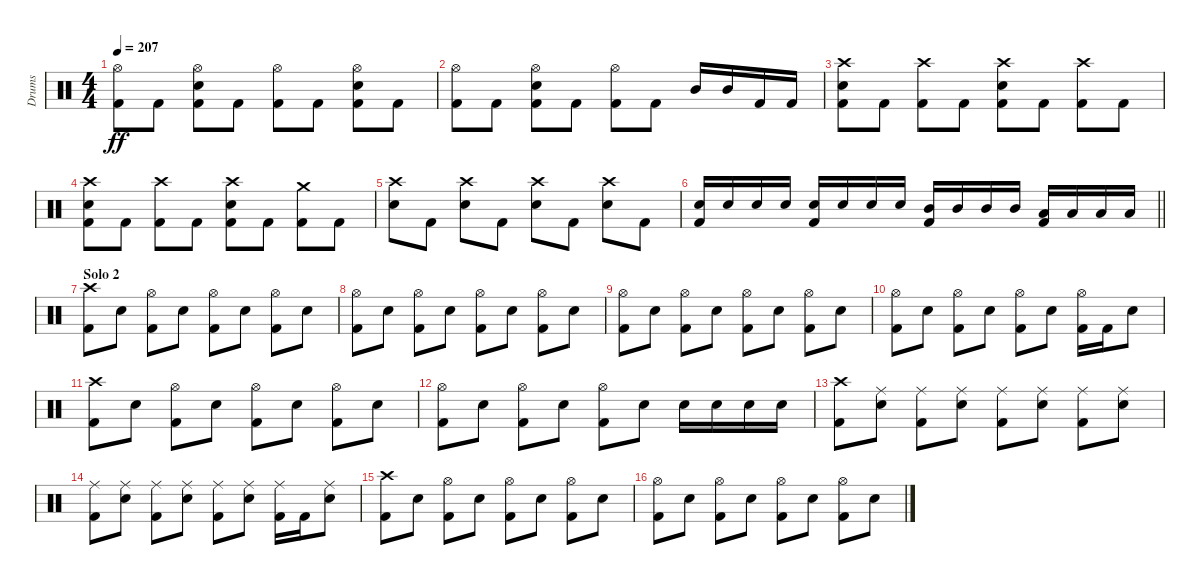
\track ("Drums" "Drums") {instrument percussion}
\staff {score}
\articulation defaults
\ts (4 4)
\tempo 207
\clef neutral
\ks c
("Hi-Hat (open)" "Kick (hit) 2").8{dy ff} "Kick (hit) 2".8 ("Hi-Hat (open)" "Snare (hit) 2" "Kick (hit) 2").8 "Kick (hit) 2".8 ("Hi-Hat (open)" "Kick (hit) 2").8 "Kick (hit) 2".8 ("Hi-Hat (open)" "Snare (hit) 2" "Kick (hit) 2").8 "Kick (hit) 2".8 |
("Hi-Hat (open)" "Kick (hit) 2").8 "Kick (hit) 2".8 ("Hi-Hat (open)" "Snare (hit) 2" "Kick (hit) 2").8 "Kick (hit) 2".8 ("Hi-Hat (open)" "Kick (hit) 2").8 "Kick (hit) 2".8 "Mid Tom (hit)".16 "Mid Tom (hit)".16 "Kick (hit) 2".16 "Kick (hit) 2".16 |
("Crash high (hit)" "Snare (hit) 2" "Kick (hit) 2").8 "Kick (hit) 2".8 ("Crash high (hit)" "Kick (hit) 2").8 "Kick (hit) 2".8 ("Crash high (hit)" "Snare (hit) 2" "Kick (hit) 2").8 "Kick (hit) 2".8 ("Crash high (hit)" "Kick (hit) 2").8 "Kick (hit) 2".8 |
("Crash high (hit)" "Snare (hit) 2" "Kick (hit) 2").8 "Kick (hit) 2".8 ("Crash high (hit)" "Kick (hit) 2").8 "Kick (hit) 2".8 ("Crash high (hit)" "Snare (hit) 2" "Kick (hit) 2").8 "Kick (hit) 2".8 ("Crash medium (hit)" "Kick (hit) 2").8 "Kick (hit) 2".8 |
("Crash high (hit)" "Snare (hit) 2").8 "Kick (hit) 2".8 ("Crash high (hit)" "Snare (hit) 2").8 "Kick (hit) 2".8 ("Crash high (hit)" "Snare (hit) 2").8 "Kick (hit) 2".8 ("Crash high (hit)" "Snare (hit) 2").8 "Kick (hit) 2".8 |
\barLineRight lightlight
("Snare (hit) 2" "Kick (hit) 2").16 "Snare (hit) 2".16 "Snare (hit) 2".16 "Snare (hit) 2".16 ("Snare (hit) 2" "Kick (hit) 2").16 "Snare (hit) 2".16 "Snare (hit) 2".16 "Snare (hit) 2".16 ("Mid Tom (hit)" "Kick (hit) 2").16 "Mid Tom (hit)".16 "Mid Tom (hit)".16 "Mid Tom (hit)".16 ("Low Tom (hit)" "Kick (hit) 2").16 "Low Tom (hit)".16 "Low Tom (hit)".16 "Low Tom (hit)".16 |
\section ("" "Solo 2")
("Crash high (hit)" "Kick (hit) 2").8 "Snare (hit) 2".8 ("Hi-Hat (open)" "Kick (hit) 2").8 "Snare (hit) 2".8 ("Hi-Hat (open)" "Kick (hit) 2").8 "Snare (hit) 2".8 ("Hi-Hat (open)" "Kick (hit) 2").8 "Snare (hit) 2".8 |
("Hi-Hat (open)" "Kick (hit) 2").8 "Snare (hit) 2".8 ("Hi-Hat (open)" "Kick (hit) 2").8 "Snare (hit) 2".8 ("Hi-Hat (open)" "Kick (hit) 2").8 "Snare (hit) 2".8 ("Hi-Hat (open)" "Kick (hit) 2").8 "Snare (hit) 2".8 |
("Hi-Hat (open)" "Kick (hit) 2").8 "Snare (hit) 2".8 ("Hi-Hat (open)" "Kick (hit) 2").8 "Snare (hit) 2".8 ("Hi-Hat (open)" "Kick (hit) 2").8 "Snare (hit) 2".8 ("Hi-Hat (open)" "Kick (hit) 2").8 "Snare (hit) 2".8 |
("Hi-Hat (open)" "Kick (hit) 2").8 "Snare (hit) 2".8 ("Hi-Hat (open)" "Kick (hit) 2").8 "Snare (hit) 2".8 ("Hi-Hat (open)" "Kick (hit) 2").8 "Snare (hit) 2".8 ("Hi-Hat (open)" "Kick (hit) 2").16 "Kick (hit) 2".16 "Snare (hit) 2".8 |
("Crash high (hit)" "Kick (hit) 2").8 "Snare (hit) 2".8 ("Hi-Hat (open)" "Kick (hit) 2").8 "Snare (hit) 2".8 ("Hi-Hat (open)" "Kick (hit) 2").8 "Snare (hit) 2".8 ("Hi-Hat (open)" "Kick (hit) 2").8 "Snare (hit) 2".8 |
("Hi-Hat (open)" "Kick (hit) 2").8 "Snare (hit) 2".8 ("Hi-Hat (open)" "Kick (hit) 2").8 "Snare (hit) 2".8 ("Hi-Hat (open)" "Kick (hit) 2").8 "Snare (hit) 2".8 "Snare (hit) 2".16 "Snare (hit) 2".16 "Snare (hit) 2".16 "Snare (hit) 2".16 |
("Crash high (hit)" "Kick (hit) 2").8 ("Ride (middle)" "Snare (hit) 2").8 ("Ride (middle)" "Kick (hit) 2").8 ("Ride (middle)" "Snare (hit) 2").8 ("Ride (middle)" "Kick (hit) 2").8 ("Ride (middle)" "Snare (hit) 2").8 ("Ride (middle)" "Kick (hit) 2").8 ("Ride (middle)" "Snare (hit) 2").8 |
("Ride (middle)" "Kick (hit) 2").8 ("Ride (middle)" "Snare (hit) 2").8 ("Ride (middle)" "Kick (hit) 2").8 ("Ride (middle)" "Snare (hit) 2").8 ("Ride (middle)" "Kick (hit) 2").8 ("Ride (middle)" "Snare (hit) 2").8 ("Ride (middle)" "Kick (hit) 2").16 "Kick (hit) 2".16 ("Ride (middle)" "Snare (hit) 2").8 |
("Crash high (hit)" "Kick (hit) 2").8 "Snare (hit) 2".8 ("Hi-Hat (open)" "Kick (hit) 2").8 "Snare (hit) 2".8 ("Hi-Hat (open)" "Kick (hit) 2").8 "Snare (hit) 2".8 ("Hi-Hat (open)" "Kick (hit) 2").8 "Snare (hit) 2".8 |
("Hi-Hat (open)" "Kick (hit) 2").8 "Snare (hit) 2".8 ("Hi-Hat (open)" "Kick (hit) 2").8 "Snare (hit) 2".8 ("Hi-Hat (open)" "Kick (hit) 2").8 "Snare (hit) 2".8 ("Hi-Hat (open)" "Kick (hit) 2").8 "Snare (hit) 2".8
